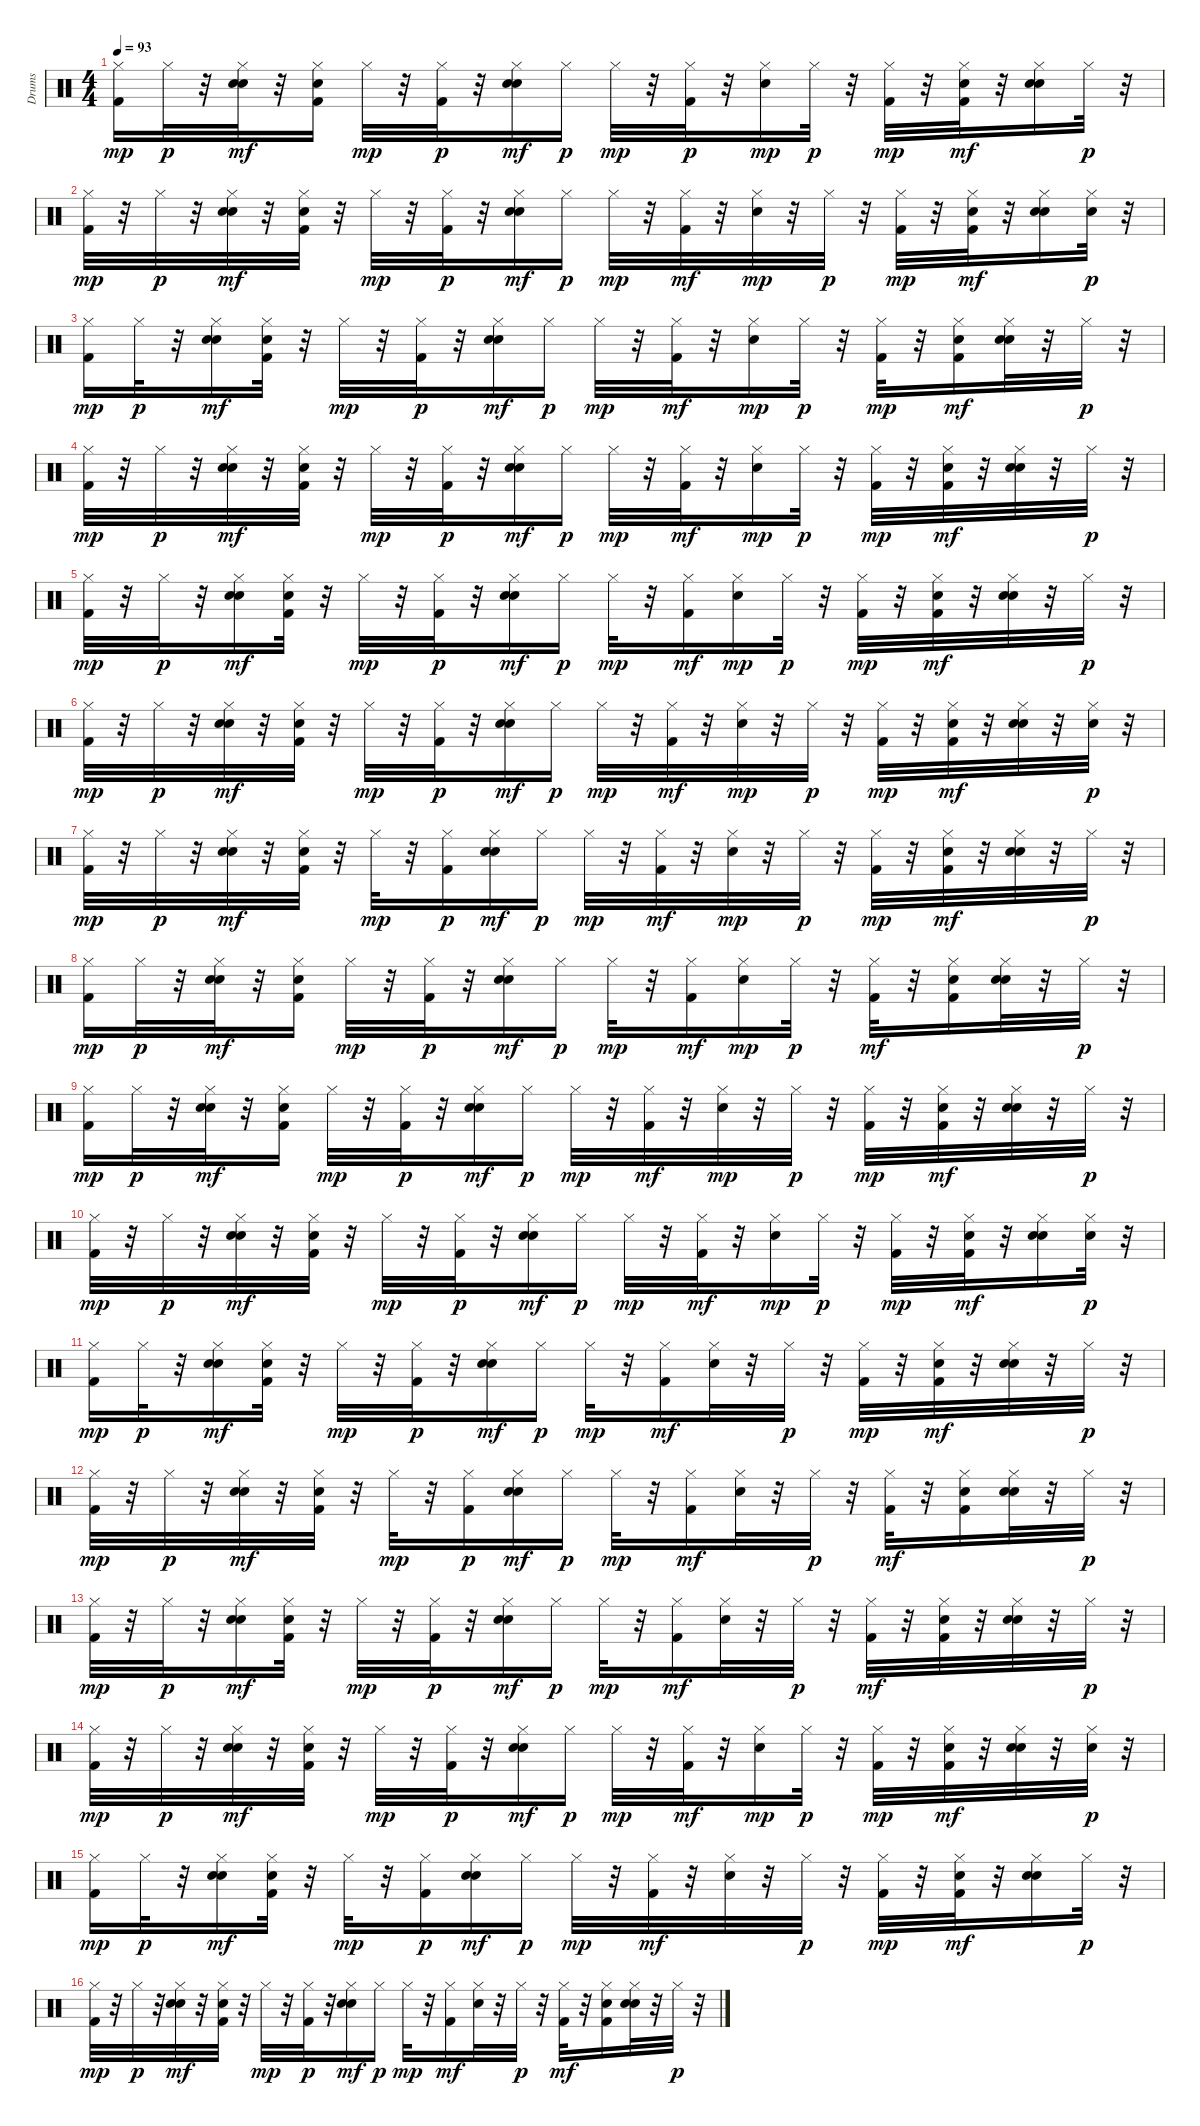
\track ("Drums" "Drums") {instrument percussion}
\staff {score}
\articulation defaults
\ts (4 4)
\tempo 93
\clef neutral
\ks c
("Kick (hit) 2" "Hi-Hat (closed)").16{dy mp} "Hi-Hat (closed)".32{dy p} r.32 ("Electric Snare (hit)" "Hi-Hat (closed)" "Hand Clap (hit)").32{dy mf} r.32 ("Hand Clap (hit)" "Hi-Hat (closed)" "Kick (hit) 2").16 "Hi-Hat (closed)".32{dy mp} r.32 ("Kick (hit) 2" "Hi-Hat (closed)").32{dy p} r.32 ("Hand Clap (hit)" "Hi-Hat (closed)" "Electric Snare (hit)").16{dy mf} "Hi-Hat (closed)".16{dy p} "Hi-Hat (closed)".32{dy mp} r.32 ("Kick (hit) 2" "Hi-Hat (closed)").32{dy p} r.32 ("Electric Snare (hit)" "Hi-Hat (closed)").16{dy mp} "Hi-Hat (closed)".32{dy p} r.32 ("Kick (hit) 2" "Hi-Hat (closed)").32{dy mp} r.32 ("Hand Clap (hit)" "Hi-Hat (closed)" "Kick (hit) 2").32{dy mf} r.32 ("Hand Clap (hit)" "Hi-Hat (closed)" "Electric Snare (hit)").16 "Hi-Hat (closed)".32{dy p} r.32 |
("Kick (hit) 2" "Hi-Hat (closed)").32{dy mp} r.32 "Hi-Hat (closed)".32{dy p} r.32 ("Hand Clap (hit)" "Hi-Hat (closed)" "Electric Snare (hit)").32{dy mf} r.32 ("Hi-Hat (closed)" "Hand Clap (hit)" "Kick (hit) 2").32 r.32 "Hi-Hat (closed)".32{dy mp} r.32 ("Kick (hit) 2" "Hi-Hat (closed)").32{dy p} r.32 ("Hi-Hat (closed)" "Electric Snare (hit)" "Hand Clap (hit)").16{dy mf} "Hi-Hat (closed)".16{dy p} "Hi-Hat (closed)".32{dy mp} r.32 ("Hi-Hat (closed)" "Kick (hit) 2").32{dy mf} r.32 ("Electric Snare (hit)" "Hi-Hat (closed)").32{dy mp} r.32 "Hi-Hat (closed)".32{dy p} r.32 ("Kick (hit) 2" "Hi-Hat (closed)").32{dy mp} r.32 ("Kick (hit) 2" "Hi-Hat (closed)" "Hand Clap (hit)").32{dy mf} r.32 ("Hand Clap (hit)" "Hi-Hat (closed)" "Electric Snare (hit)").16 ("Electric Snare (hit)" "Hi-Hat (closed)").32{dy p} r.32 |
("Kick (hit) 2" "Hi-Hat (closed)").16{dy mp} "Hi-Hat (closed)".32{dy p} r.32 ("Electric Snare (hit)" "Hi-Hat (closed)" "Hand Clap (hit)").16{dy mf} ("Hand Clap (hit)" "Hi-Hat (closed)" "Kick (hit) 2").32 r.32 "Hi-Hat (closed)".32{dy mp} r.32 ("Kick (hit) 2" "Hi-Hat (closed)").32{dy p} r.32 ("Hand Clap (hit)" "Hi-Hat (closed)" "Electric Snare (hit)").16{dy mf} "Hi-Hat (closed)".16{dy p} "Hi-Hat (closed)".32{dy mp} r.32 ("Hi-Hat (closed)" "Kick (hit) 2").32{dy mf} r.32 ("Electric Snare (hit)" "Hi-Hat (closed)").16{dy mp} "Hi-Hat (closed)".32{dy p} r.32 ("Kick (hit) 2" "Hi-Hat (closed)").32{dy mp} r.32 ("Hi-Hat (closed)" "Hand Clap (hit)" "Kick (hit) 2").16{dy mf} ("Hand Clap (hit)" "Hi-Hat (closed)" "Electric Snare (hit)").32 r.32 "Hi-Hat (closed)".32{dy p} r.32 |
("Kick (hit) 2" "Hi-Hat (closed)").32{dy mp} r.32 "Hi-Hat (closed)".32{dy p} r.32 ("Electric Snare (hit)" "Hi-Hat (closed)" "Hand Clap (hit)").32{dy mf} r.32 ("Hand Clap (hit)" "Hi-Hat (closed)" "Kick (hit) 2").32 r.32 "Hi-Hat (closed)".32{dy mp} r.32 ("Kick (hit) 2" "Hi-Hat (closed)").32{dy p} r.32 ("Hand Clap (hit)" "Hi-Hat (closed)" "Electric Snare (hit)").16{dy mf} "Hi-Hat (closed)".16{dy p} "Hi-Hat (closed)".32{dy mp} r.32 ("Hi-Hat (closed)" "Kick (hit) 2").32{dy mf} r.32 ("Electric Snare (hit)" "Hi-Hat (closed)").16{dy mp} "Hi-Hat (closed)".32{dy p} r.32 ("Kick (hit) 2" "Hi-Hat (closed)").32{dy mp} r.32 ("Hi-Hat (closed)" "Hand Clap (hit)" "Kick (hit) 2").32{dy mf} r.32 ("Hand Clap (hit)" "Hi-Hat (closed)" "Electric Snare (hit)").32 r.32 "Hi-Hat (closed)".32{dy p} r.32 |
("Kick (hit) 2" "Hi-Hat (closed)").32{dy mp} r.32 "Hi-Hat (closed)".32{dy p} r.32 ("Electric Snare (hit)" "Hi-Hat (closed)" "Hand Clap (hit)").16{dy mf} ("Hi-Hat (closed)" "Hand Clap (hit)" "Kick (hit) 2").32 r.32 "Hi-Hat (closed)".32{dy mp} r.32 ("Kick (hit) 2" "Hi-Hat (closed)").32{dy p} r.32 ("Hi-Hat (closed)" "Hand Clap (hit)" "Electric Snare (hit)").16{dy mf} "Hi-Hat (closed)".16{dy p} "Hi-Hat (closed)".32{dy mp} r.32 ("Hi-Hat (closed)" "Kick (hit) 2").16{dy mf} ("Electric Snare (hit)" "Hi-Hat (closed)").16{dy mp} "Hi-Hat (closed)".32{dy p} r.32 ("Kick (hit) 2" "Hi-Hat (closed)").32{dy mp} r.32 ("Hand Clap (hit)" "Hi-Hat (closed)" "Kick (hit) 2").32{dy mf} r.32 ("Hand Clap (hit)" "Hi-Hat (closed)" "Electric Snare (hit)").32 r.32 "Hi-Hat (closed)".32{dy p} r.32 |
("Kick (hit) 2" "Hi-Hat (closed)").32{dy mp} r.32 "Hi-Hat (closed)".32{dy p} r.32 ("Hand Clap (hit)" "Hi-Hat (closed)" "Electric Snare (hit)").32{dy mf} r.32 ("Hi-Hat (closed)" "Hand Clap (hit)" "Kick (hit) 2").32 r.32 "Hi-Hat (closed)".32{dy mp} r.32 ("Kick (hit) 2" "Hi-Hat (closed)").32{dy p} r.32 ("Hi-Hat (closed)" "Electric Snare (hit)" "Hand Clap (hit)").16{dy mf} "Hi-Hat (closed)".16{dy p} "Hi-Hat (closed)".32{dy mp} r.32 ("Hi-Hat (closed)" "Kick (hit) 2").32{dy mf} r.32 ("Electric Snare (hit)" "Hi-Hat (closed)").32{dy mp} r.32 "Hi-Hat (closed)".32{dy p} r.32 ("Kick (hit) 2" "Hi-Hat (closed)").32{dy mp} r.32 ("Hand Clap (hit)" "Hi-Hat (closed)" "Kick (hit) 2").32{dy mf} r.32 ("Electric Snare (hit)" "Hi-Hat (closed)" "Hand Clap (hit)").32 r.32 ("Electric Snare (hit)" "Hi-Hat (closed)").32{dy p} r.32 |
("Kick (hit) 2" "Hi-Hat (closed)").32{dy mp} r.32 "Hi-Hat (closed)".32{dy p} r.32 ("Electric Snare (hit)" "Hi-Hat (closed)" "Hand Clap (hit)").32{dy mf} r.32 ("Hand Clap (hit)" "Hi-Hat (closed)" "Kick (hit) 2").32 r.32 "Hi-Hat (closed)".32{dy mp} r.32 ("Kick (hit) 2" "Hi-Hat (closed)").16{dy p} ("Hand Clap (hit)" "Hi-Hat (closed)" "Electric Snare (hit)").16{dy mf} "Hi-Hat (closed)".16{dy p} "Hi-Hat (closed)".32{dy mp} r.32 ("Hi-Hat (closed)" "Kick (hit) 2").32{dy mf} r.32 ("Electric Snare (hit)" "Hi-Hat (closed)").32{dy mp} r.32 "Hi-Hat (closed)".32{dy p} r.32 ("Kick (hit) 2" "Hi-Hat (closed)").32{dy mp} r.32 ("Hi-Hat (closed)" "Hand Clap (hit)" "Kick (hit) 2").32{dy mf} r.32 ("Hand Clap (hit)" "Hi-Hat (closed)" "Electric Snare (hit)").32 r.32 "Hi-Hat (closed)".32{dy p} r.32 |
("Kick (hit) 2" "Hi-Hat (closed)").16{dy mp} "Hi-Hat (closed)".32{dy p} r.32 ("Electric Snare (hit)" "Hi-Hat (closed)" "Hand Clap (hit)").32{dy mf} r.32 ("Hand Clap (hit)" "Hi-Hat (closed)" "Kick (hit) 2").16 "Hi-Hat (closed)".32{dy mp} r.32 ("Kick (hit) 2" "Hi-Hat (closed)").32{dy p} r.32 ("Hand Clap (hit)" "Hi-Hat (closed)" "Electric Snare (hit)").16{dy mf} "Hi-Hat (closed)".16{dy p} "Hi-Hat (closed)".32{dy mp} r.32 ("Hi-Hat (closed)" "Kick (hit) 2").16{dy mf} ("Electric Snare (hit)" "Hi-Hat (closed)").16{dy mp} "Hi-Hat (closed)".32{dy p} r.32 ("Hi-Hat (closed)" "Kick (hit) 2").32{dy mf} r.32 ("Hi-Hat (closed)" "Hand Clap (hit)" "Kick (hit) 2").16 ("Hand Clap (hit)" "Hi-Hat (closed)" "Electric Snare (hit)").32 r.32 "Hi-Hat (closed)".32{dy p} r.32 |
("Kick (hit) 2" "Hi-Hat (closed)").16{dy mp} "Hi-Hat (closed)".32{dy p} r.32 ("Electric Snare (hit)" "Hi-Hat (closed)" "Hand Clap (hit)").32{dy mf} r.32 ("Hi-Hat (closed)" "Hand Clap (hit)" "Kick (hit) 2").16 "Hi-Hat (closed)".32{dy mp} r.32 ("Kick (hit) 2" "Hi-Hat (closed)").32{dy p} r.32 ("Hi-Hat (closed)" "Hand Clap (hit)" "Electric Snare (hit)").16{dy mf} "Hi-Hat (closed)".16{dy p} "Hi-Hat (closed)".32{dy mp} r.32 ("Hi-Hat (closed)" "Kick (hit) 2").32{dy mf} r.32 ("Electric Snare (hit)" "Hi-Hat (closed)").32{dy mp} r.32 "Hi-Hat (closed)".32{dy p} r.32 ("Kick (hit) 2" "Hi-Hat (closed)").32{dy mp} r.32 ("Hand Clap (hit)" "Hi-Hat (closed)" "Kick (hit) 2").32{dy mf} r.32 ("Hand Clap (hit)" "Hi-Hat (closed)" "Electric Snare (hit)").32 r.32 "Hi-Hat (closed)".32{dy p} r.32 |
("Kick (hit) 2" "Hi-Hat (closed)").32{dy mp} r.32 "Hi-Hat (closed)".32{dy p} r.32 ("Hand Clap (hit)" "Hi-Hat (closed)" "Electric Snare (hit)").32{dy mf} r.32 ("Hi-Hat (closed)" "Hand Clap (hit)" "Kick (hit) 2").32 r.32 "Hi-Hat (closed)".32{dy mp} r.32 ("Kick (hit) 2" "Hi-Hat (closed)").32{dy p} r.32 ("Hi-Hat (closed)" "Electric Snare (hit)" "Hand Clap (hit)").16{dy mf} "Hi-Hat (closed)".16{dy p} "Hi-Hat (closed)".32{dy mp} r.32 ("Hi-Hat (closed)" "Kick (hit) 2").32{dy mf} r.32 ("Electric Snare (hit)" "Hi-Hat (closed)").16{dy mp} "Hi-Hat (closed)".32{dy p} r.32 ("Kick (hit) 2" "Hi-Hat (closed)").32{dy mp} r.32 ("Hand Clap (hit)" "Hi-Hat (closed)" "Kick (hit) 2").32{dy mf} r.32 ("Electric Snare (hit)" "Hi-Hat (closed)" "Hand Clap (hit)").16 ("Electric Snare (hit)" "Hi-Hat (closed)").32{dy p} r.32 |
("Kick (hit) 2" "Hi-Hat (closed)").16{dy mp} "Hi-Hat (closed)".32{dy p} r.32 ("Electric Snare (hit)" "Hi-Hat (closed)" "Hand Clap (hit)").16{dy mf} ("Hand Clap (hit)" "Hi-Hat (closed)" "Kick (hit) 2").32 r.32 "Hi-Hat (closed)".32{dy mp} r.32 ("Kick (hit) 2" "Hi-Hat (closed)").32{dy p} r.32 ("Hand Clap (hit)" "Hi-Hat (closed)" "Electric Snare (hit)").16{dy mf} "Hi-Hat (closed)".16{dy p} "Hi-Hat (closed)".32{dy mp} r.32 ("Hi-Hat (closed)" "Kick (hit) 2").16{dy mf} ("Hi-Hat (closed)" "Electric Snare (hit)").32 r.32 "Hi-Hat (closed)".32{dy p} r.32 ("Kick (hit) 2" "Hi-Hat (closed)").32{dy mp} r.32 ("Hand Clap (hit)" "Hi-Hat (closed)" "Kick (hit) 2").32{dy mf} r.32 ("Hi-Hat (closed)" "Hand Clap (hit)" "Electric Snare (hit)").32 r.32 "Hi-Hat (closed)".32{dy p} r.32 |
("Kick (hit) 2" "Hi-Hat (closed)").32{dy mp} r.32 "Hi-Hat (closed)".32{dy p} r.32 ("Electric Snare (hit)" "Hi-Hat (closed)" "Hand Clap (hit)").32{dy mf} r.32 ("Hand Clap (hit)" "Hi-Hat (closed)" "Kick (hit) 2").32 r.32 "Hi-Hat (closed)".32{dy mp} r.32 ("Kick (hit) 2" "Hi-Hat (closed)").16{dy p} ("Hand Clap (hit)" "Hi-Hat (closed)" "Electric Snare (hit)").16{dy mf} "Hi-Hat (closed)".16{dy p} "Hi-Hat (closed)".32{dy mp} r.32 ("Hi-Hat (closed)" "Kick (hit) 2").16{dy mf} ("Hi-Hat (closed)" "Electric Snare (hit)").32 r.32 "Hi-Hat (closed)".32{dy p} r.32 ("Hi-Hat (closed)" "Kick (hit) 2").32{dy mf} r.32 ("Hand Clap (hit)" "Hi-Hat (closed)" "Kick (hit) 2").16 ("Hi-Hat (closed)" "Hand Clap (hit)" "Electric Snare (hit)").32 r.32 "Hi-Hat (closed)".32{dy p} r.32 |
("Kick (hit) 2" "Hi-Hat (closed)").32{dy mp} r.32 "Hi-Hat (closed)".32{dy p} r.32 ("Electric Snare (hit)" "Hi-Hat (closed)" "Hand Clap (hit)").16{dy mf} ("Hand Clap (hit)" "Hi-Hat (closed)" "Kick (hit) 2").32 r.32 "Hi-Hat (closed)".32{dy mp} r.32 ("Kick (hit) 2" "Hi-Hat (closed)").32{dy p} r.32 ("Hand Clap (hit)" "Hi-Hat (closed)" "Electric Snare (hit)").16{dy mf} "Hi-Hat (closed)".16{dy p} "Hi-Hat (closed)".32{dy mp} r.32 ("Hi-Hat (closed)" "Kick (hit) 2").16{dy mf} ("Hi-Hat (closed)" "Electric Snare (hit)").32 r.32 "Hi-Hat (closed)".32{dy p} r.32 ("Hi-Hat (closed)" "Kick (hit) 2").32{dy mf} r.32 ("Hi-Hat (closed)" "Hand Clap (hit)" "Kick (hit) 2").32 r.32 ("Hi-Hat (closed)" "Hand Clap (hit)" "Electric Snare (hit)").32 r.32 "Hi-Hat (closed)".32{dy p} r.32 |
("Kick (hit) 2" "Hi-Hat (closed)").32{dy mp} r.32 "Hi-Hat (closed)".32{dy p} r.32 ("Hand Clap (hit)" "Hi-Hat (closed)" "Electric Snare (hit)").32{dy mf} r.32 ("Hand Clap (hit)" "Hi-Hat (closed)" "Kick (hit) 2").32 r.32 "Hi-Hat (closed)".32{dy mp} r.32 ("Kick (hit) 2" "Hi-Hat (closed)").32{dy p} r.32 ("Hi-Hat (closed)" "Electric Snare (hit)" "Hand Clap (hit)").16{dy mf} "Hi-Hat (closed)".16{dy p} "Hi-Hat (closed)".32{dy mp} r.32 ("Hi-Hat (closed)" "Kick (hit) 2").32{dy mf} r.32 ("Electric Snare (hit)" "Hi-Hat (closed)").16{dy mp} "Hi-Hat (closed)".32{dy p} r.32 ("Kick (hit) 2" "Hi-Hat (closed)").32{dy mp} r.32 ("Kick (hit) 2" "Hi-Hat (closed)" "Hand Clap (hit)").32{dy mf} r.32 ("Hand Clap (hit)" "Hi-Hat (closed)" "Electric Snare (hit)").32 r.32 ("Electric Snare (hit)" "Hi-Hat (closed)").32{dy p} r.32 |
("Kick (hit) 2" "Hi-Hat (closed)").16{dy mp} "Hi-Hat (closed)".32{dy p} r.32 ("Electric Snare (hit)" "Hi-Hat (closed)" "Hand Clap (hit)").16{dy mf} ("Hand Clap (hit)" "Hi-Hat (closed)" "Kick (hit) 2").32 r.32 "Hi-Hat (closed)".32{dy mp} r.32 ("Kick (hit) 2" "Hi-Hat (closed)").16{dy p} ("Hand Clap (hit)" "Hi-Hat (closed)" "Electric Snare (hit)").16{dy mf} "Hi-Hat (closed)".16{dy p} "Hi-Hat (closed)".32{dy mp} r.32 ("Hi-Hat (closed)" "Kick (hit) 2").32{dy mf} r.32 ("Hi-Hat (closed)" "Electric Snare (hit)").32 r.32 "Hi-Hat (closed)".32{dy p} r.32 ("Kick (hit) 2" "Hi-Hat (closed)").32{dy mp} r.32 ("Hand Clap (hit)" "Hi-Hat (closed)" "Kick (hit) 2").32{dy mf} r.32 ("Hi-Hat (closed)" "Hand Clap (hit)" "Electric Snare (hit)").16 "Hi-Hat (closed)".32{dy p} r.32 |
("Kick (hit) 2" "Hi-Hat (closed)").32{dy mp} r.32 "Hi-Hat (closed)".32{dy p} r.32 ("Electric Snare (hit)" "Hi-Hat (closed)" "Hand Clap (hit)").32{dy mf} r.32 ("Hand Clap (hit)" "Hi-Hat (closed)" "Kick (hit) 2").32 r.32 "Hi-Hat (closed)".32{dy mp} r.32 ("Kick (hit) 2" "Hi-Hat (closed)").32{dy p} r.32 ("Hand Clap (hit)" "Hi-Hat (closed)" "Electric Snare (hit)").16{dy mf} "Hi-Hat (closed)".16{dy p} "Hi-Hat (closed)".32{dy mp} r.32 ("Hi-Hat (closed)" "Kick (hit) 2").16{dy mf} ("Hi-Hat (closed)" "Electric Snare (hit)").32 r.32 "Hi-Hat (closed)".32{dy p} r.32 ("Hi-Hat (closed)" "Kick (hit) 2").32{dy mf} r.32 ("Hand Clap (hit)" "Hi-Hat (closed)" "Kick (hit) 2").16 ("Hi-Hat (closed)" "Hand Clap (hit)" "Electric Snare (hit)").32 r.32 "Hi-Hat (closed)".32{dy p} r.32
